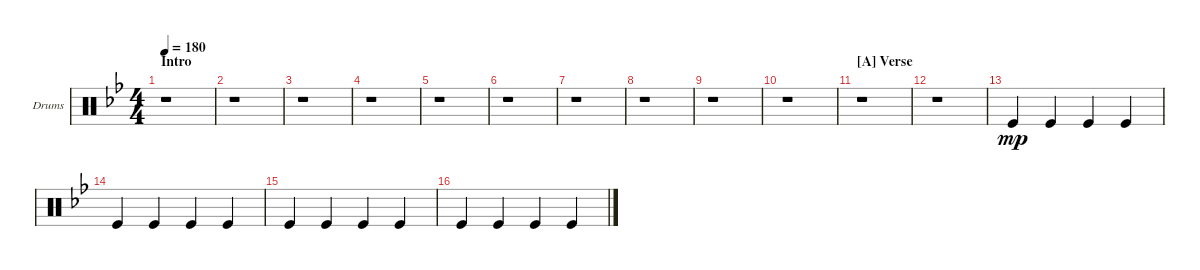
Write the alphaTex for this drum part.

\defaultSystemsLayout 4
\bracketExtendMode groupsimilarinstruments
\firstSystemTrackNameOrientation horizontal
\otherSystemsTrackNameOrientation horizontal
\track ("Drumkit" "Drums") {instrument percussion}
\staff {score}
\articulation defaults
\ts (4 4)
\section ("" "Intro")
\tempo 180
\clef neutral
\ks bb
r.1{dy mp} |
r.1 |
r.1 |
r.1 |
r.1 |
r.1 |
r.1 |
r.1 |
r.1 |
r.1 |
\section ("A" "Verse")
r.1 |
r.1 |
"Kick (hit)".4 "Kick (hit)".4 "Kick (hit)".4 "Kick (hit)".4 |
"Kick (hit)".4 "Kick (hit)".4 "Kick (hit)".4 "Kick (hit)".4 |
"Kick (hit)".4 "Kick (hit)".4 "Kick (hit)".4 "Kick (hit)".4 |
"Kick (hit)".4 "Kick (hit)".4 "Kick (hit)".4 "Kick (hit)".4
